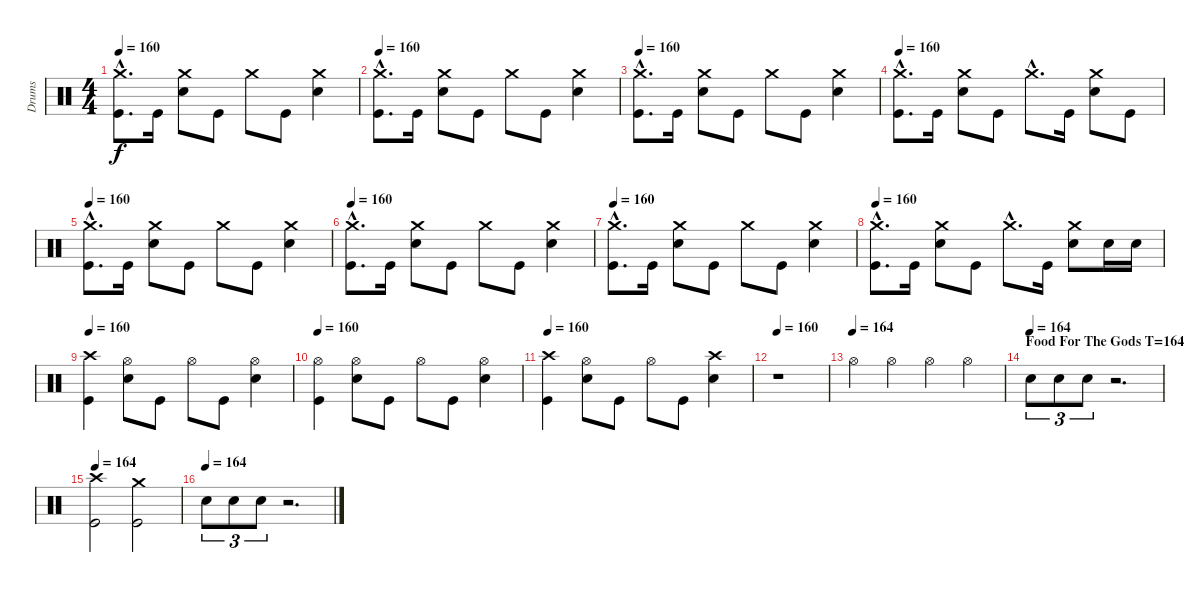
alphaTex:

\track ("Drums" "Drums") {instrument percussion}
\staff {score}
\articulation defaults
\ts (4 4)
\tempo 160
\clef neutral
\ks c
("Crash medium (hit)"{hac} "Kick (hit)"{hac}).8{d dy f} "Kick (hit)".16 ("Crash medium (hit)" "Electric Snare (hit)").8 "Kick (hit)".8 "Crash medium (hit)".8 "Kick (hit)".8 ("Crash medium (hit)" "Electric Snare (hit)").4 |
\tempo 160
("Crash medium (hit)"{hac} "Kick (hit)"{hac}).8{d} "Kick (hit)".16 ("Crash medium (hit)" "Electric Snare (hit)").8 "Kick (hit)".8 "Crash medium (hit)".8 "Kick (hit)".8 ("Crash medium (hit)" "Electric Snare (hit)").4 |
\tempo 160
("Crash medium (hit)"{hac} "Kick (hit)"{hac}).8{d} "Kick (hit)".16 ("Crash medium (hit)" "Electric Snare (hit)").8 "Kick (hit)".8 "Crash medium (hit)".8 "Kick (hit)".8 ("Crash medium (hit)" "Electric Snare (hit)").4 |
\tempo 160
("Crash medium (hit)"{hac} "Kick (hit)"{hac}).8{d} "Kick (hit)".16 ("Crash medium (hit)" "Electric Snare (hit)").8 "Kick (hit)".8 "Crash medium (hit)"{hac}.8{d} "Kick (hit)".16 ("Crash medium (hit)" "Electric Snare (hit)").8 "Kick (hit)".8 |
\tempo 160
("Crash medium (hit)"{hac} "Kick (hit)"{hac}).8{d} "Kick (hit)".16 ("Crash medium (hit)" "Electric Snare (hit)").8 "Kick (hit)".8 "Crash medium (hit)".8 "Kick (hit)".8 ("Crash medium (hit)" "Electric Snare (hit)").4 |
\tempo 160
("Crash medium (hit)"{hac} "Kick (hit)"{hac}).8{d} "Kick (hit)".16 ("Crash medium (hit)" "Electric Snare (hit)").8 "Kick (hit)".8 "Crash medium (hit)".8 "Kick (hit)".8 ("Crash medium (hit)" "Electric Snare (hit)").4 |
\tempo 160
("Crash medium (hit)"{hac} "Kick (hit)"{hac}).8{d} "Kick (hit)".16 ("Crash medium (hit)" "Electric Snare (hit)").8 "Kick (hit)".8 "Crash medium (hit)".8 "Kick (hit)".8 ("Crash medium (hit)" "Electric Snare (hit)").4 |
\tempo 160
("Crash medium (hit)"{hac} "Kick (hit)"{hac}).8{d} "Kick (hit)".16 ("Crash medium (hit)" "Electric Snare (hit)").8 "Kick (hit)".8 "Crash medium (hit)"{hac}.8{d} "Kick (hit)".16 ("Crash medium (hit)" "Electric Snare (hit)").8 "Electric Snare (hit)".16 "Electric Snare (hit)".16 |
\tempo 160
("Crash high (hit)" "Kick (hit)").4 ("Hi-Hat (open)" "Electric Snare (hit)").8 "Kick (hit)".8 "Hi-Hat (open)".8 "Kick (hit)".8 ("Hi-Hat (open)" "Electric Snare (hit)").4 |
\tempo 160
("Hi-Hat (open)" "Kick (hit)").4 ("Hi-Hat (open)" "Electric Snare (hit)").8 "Kick (hit)".8 "Hi-Hat (open)".8 "Kick (hit)".8 ("Hi-Hat (open)" "Electric Snare (hit)").4 |
\tempo 160
("Crash high (hit)" "Kick (hit)").4 ("Hi-Hat (open)" "Electric Snare (hit)").8 "Kick (hit)".8 "Hi-Hat (open)".8 "Kick (hit)".8 ("Crash high (hit)" "Electric Snare (hit)").4 |
\tempo 160
r.1 |
\tempo (164)
"Hi-Hat (open)".4 "Hi-Hat (open)".4 "Hi-Hat (open)".4 "Hi-Hat (open)".4 |
\section ("" "Food For The Gods T=164")
\tempo (164)
"Electric Snare (hit)".8{tu (3 2)} "Electric Snare (hit)".8{tu (3 2)} "Electric Snare (hit)".8{tu (3 2)} r.2{d} |
\tempo 164
("Crash high (hit)" "Kick (hit)").2 ("Crash medium (hit)" "Kick (hit)").2 |
\tempo (164)
"Electric Snare (hit)".8{tu (3 2)} "Electric Snare (hit)".8{tu (3 2)} "Electric Snare (hit)".8{tu (3 2)} r.2{d}
